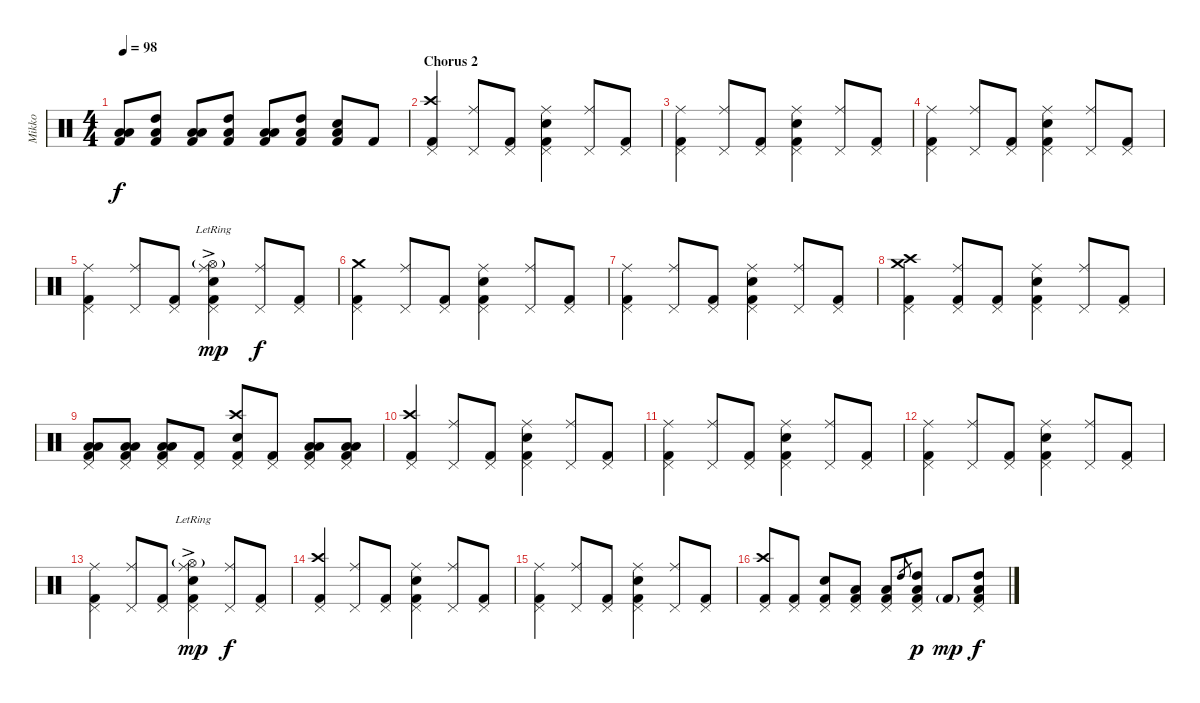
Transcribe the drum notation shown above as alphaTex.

\track ("Mikko" "Mikko") {instrument percussion}
\staff {score}
\articulation defaults
\ts (4 4)
\tempo 98
\clef neutral
\ks c
("Low Floor Tom (hit)" "Low Tom (hit)" "Kick (hit) 2").8{dy f} ("Low Floor Tom (hit)" "High Tom (hit)" "Kick (hit) 2").8 ("Low Floor Tom (hit)" "Low Tom (hit)" "Kick (hit) 2").8 ("Low Floor Tom (hit)" "High Tom (hit)" "Kick (hit) 2").8 ("Low Floor Tom (hit)" "Low Tom (hit)" "Kick (hit) 2").8 ("Low Floor Tom (hit)" "High Tom (hit)" "Kick (hit) 2").8 ("Low Tom (hit)" "Electric Snare (hit)" "Kick (hit) 2").8 "Kick (hit) 2".8 |
\section ("" "Chorus 2")
("Crash high (hit)" "Pedal Hi-Hat (hit)" "Kick (hit) 2").4 ("Ride (middle)" "Pedal Hi-Hat (hit)").8 ("Pedal Hi-Hat (hit)" "Kick (hit) 2").8 ("Ride (middle)" "Pedal Hi-Hat (hit)" "Electric Snare (hit)" "Kick (hit) 2").4 ("Ride (middle)" "Pedal Hi-Hat (hit)").8 ("Pedal Hi-Hat (hit)" "Kick (hit) 2").8 |
("Ride (middle)" "Pedal Hi-Hat (hit)" "Kick (hit) 2").4 ("Ride (middle)" "Pedal Hi-Hat (hit)").8 ("Pedal Hi-Hat (hit)" "Kick (hit) 2").8 ("Ride (middle)" "Electric Snare (hit)" "Pedal Hi-Hat (hit)" "Kick (hit) 2").4 ("Ride (middle)" "Pedal Hi-Hat (hit)").8 ("Pedal Hi-Hat (hit)" "Kick (hit) 2").8 |
("Ride (middle)" "Pedal Hi-Hat (hit)" "Kick (hit) 2").4 ("Ride (middle)" "Pedal Hi-Hat (hit)").8 ("Pedal Hi-Hat (hit)" "Kick (hit) 2").8 ("Ride (middle)" "Electric Snare (hit)" "Pedal Hi-Hat (hit)" "Kick (hit) 2").4 ("Ride (middle)" "Pedal Hi-Hat (hit)").8 ("Pedal Hi-Hat (hit)" "Kick (hit) 2").8 |
("Ride (middle)" "Pedal Hi-Hat (hit)" "Kick (hit) 2").4 ("Ride (middle)" "Pedal Hi-Hat (hit)").8 ("Pedal Hi-Hat (hit)" "Kick (hit) 2").8 ("Ride (middle)"{ac lr} "Hi-Hat (open)"{g lr} "Electric Snare (hit)" "Pedal Hi-Hat (hit)" "Kick (hit) 2").4{dy mp} ("Ride (middle)" "Pedal Hi-Hat (hit)").8{dy f} ("Pedal Hi-Hat (hit)" "Kick (hit) 2").8 |
("Crash medium (hit)" "Pedal Hi-Hat (hit)" "Kick (hit) 2").4 ("Ride (middle)" "Pedal Hi-Hat (hit)").8 ("Pedal Hi-Hat (hit)" "Kick (hit) 2").8 ("Ride (middle)" "Electric Snare (hit)" "Pedal Hi-Hat (hit)" "Kick (hit) 2").4 ("Ride (middle)" "Pedal Hi-Hat (hit)").8 ("Pedal Hi-Hat (hit)" "Kick (hit) 2").8 |
("Ride (middle)" "Pedal Hi-Hat (hit)" "Kick (hit) 2").4 ("Ride (middle)" "Pedal Hi-Hat (hit)").8 ("Pedal Hi-Hat (hit)" "Kick (hit) 2").8 ("Ride (middle)" "Electric Snare (hit)" "Pedal Hi-Hat (hit)" "Kick (hit) 2").4 ("Ride (middle)" "Pedal Hi-Hat (hit)").8 ("Pedal Hi-Hat (hit)" "Kick (hit) 2").8 |
("Crash high (hit)" "Crash medium (hit)" "Pedal Hi-Hat (hit)" "Kick (hit) 2").4 ("Ride (middle)" "Kick (hit) 2" "Pedal Hi-Hat (hit)").8 ("Kick (hit) 2" "Pedal Hi-Hat (hit)").8 ("Ride (middle)" "Kick (hit) 2" "Pedal Hi-Hat (hit)" "Electric Snare (hit)").4 ("Ride (middle)" "Pedal Hi-Hat (hit)").8 ("Pedal Hi-Hat (hit)" "Kick (hit) 2").8 |
("Low Tom (hit)" "Low Floor Tom (hit)" "Pedal Hi-Hat (hit)" "Kick (hit) 2").8 ("Low Tom (hit)" "Low Floor Tom (hit)" "Pedal Hi-Hat (hit)" "Kick (hit) 2").8 ("Low Tom (hit)" "Low Floor Tom (hit)" "Pedal Hi-Hat (hit)" "Kick (hit) 2").8 ("Pedal Hi-Hat (hit)" "Kick (hit) 2").8 ("Crash high (hit)" "Electric Snare (hit)" "Pedal Hi-Hat (hit)" "Kick (hit) 2").8 ("Pedal Hi-Hat (hit)" "Kick (hit) 2").8 ("Low Tom (hit)" "Low Floor Tom (hit)" "Pedal Hi-Hat (hit)" "Kick (hit) 2").8 ("Low Tom (hit)" "Low Floor Tom (hit)" "Pedal Hi-Hat (hit)" "Kick (hit) 2").8 |
("Crash high (hit)" "Pedal Hi-Hat (hit)" "Kick (hit) 2").4 ("Ride (middle)" "Pedal Hi-Hat (hit)").8 ("Pedal Hi-Hat (hit)" "Kick (hit) 2").8 ("Ride (middle)" "Electric Snare (hit)" "Pedal Hi-Hat (hit)" "Kick (hit) 2").4 ("Ride (middle)" "Pedal Hi-Hat (hit)").8 ("Pedal Hi-Hat (hit)" "Kick (hit) 2").8 |
("Ride (middle)" "Pedal Hi-Hat (hit)" "Kick (hit) 2").4 ("Ride (middle)" "Pedal Hi-Hat (hit)").8 ("Pedal Hi-Hat (hit)" "Kick (hit) 2").8 ("Ride (middle)" "Electric Snare (hit)" "Pedal Hi-Hat (hit)" "Kick (hit) 2").4 ("Ride (middle)" "Pedal Hi-Hat (hit)").8 ("Pedal Hi-Hat (hit)" "Kick (hit) 2").8 |
("Ride (middle)" "Pedal Hi-Hat (hit)" "Kick (hit) 2").4 ("Ride (middle)" "Pedal Hi-Hat (hit)").8 ("Pedal Hi-Hat (hit)" "Kick (hit) 2").8 ("Ride (middle)" "Electric Snare (hit)" "Pedal Hi-Hat (hit)" "Kick (hit) 2").4 ("Ride (middle)" "Pedal Hi-Hat (hit)").8 ("Pedal Hi-Hat (hit)" "Kick (hit) 2").8 |
("Ride (middle)" "Pedal Hi-Hat (hit)" "Kick (hit) 2").4 ("Ride (middle)" "Pedal Hi-Hat (hit)").8 ("Pedal Hi-Hat (hit)" "Kick (hit) 2").8 ("Ride (middle)"{ac lr} "Hi-Hat (open)"{g} "Pedal Hi-Hat (hit)" "Electric Snare (hit)" "Kick (hit) 2").4{dy mp} ("Ride (middle)" "Pedal Hi-Hat (hit)").8{dy f} ("Pedal Hi-Hat (hit)" "Kick (hit) 2").8 |
("Crash high (hit)" "Pedal Hi-Hat (hit)" "Kick (hit) 2").4 ("Ride (middle)" "Pedal Hi-Hat (hit)").8 ("Pedal Hi-Hat (hit)" "Kick (hit) 2").8 ("Ride (middle)" "Electric Snare (hit)" "Pedal Hi-Hat (hit)" "Kick (hit) 2").4 ("Ride (middle)" "Pedal Hi-Hat (hit)").8 ("Pedal Hi-Hat (hit)" "Kick (hit) 2").8 |
("Ride (middle)" "Pedal Hi-Hat (hit)" "Kick (hit) 2").4 ("Ride (middle)" "Pedal Hi-Hat (hit)").8 ("Pedal Hi-Hat (hit)" "Kick (hit) 2").8 ("Ride (middle)" "Electric Snare (hit)" "Pedal Hi-Hat (hit)" "Kick (hit) 2").4 ("Ride (middle)" "Pedal Hi-Hat (hit)").8 ("Pedal Hi-Hat (hit)" "Kick (hit) 2").8 |
("Crash high (hit)" "Pedal Hi-Hat (hit)" "Kick (hit) 2").8 ("Pedal Hi-Hat (hit)" "Kick (hit) 2").8 ("Pedal Hi-Hat (hit)" "Electric Snare (hit)" "Kick (hit) 2").8 ("Low Tom (hit)" "Pedal Hi-Hat (hit)" "Kick (hit) 2").8 ("Low Tom (hit)" "Pedal Hi-Hat (hit)" "Kick (hit) 2").8 "High Tom (hit)".8{gr} ("Pedal Hi-Hat (hit)" "High Tom (hit)" "Low Tom (hit)" "Kick (hit) 2").8{dy p} "Kick (hit) 2"{g}.8{dy mp} ("Pedal Hi-Hat (hit)" "High Tom (hit)" "Low Tom (hit)" "Kick (hit) 2").8{dy f}
